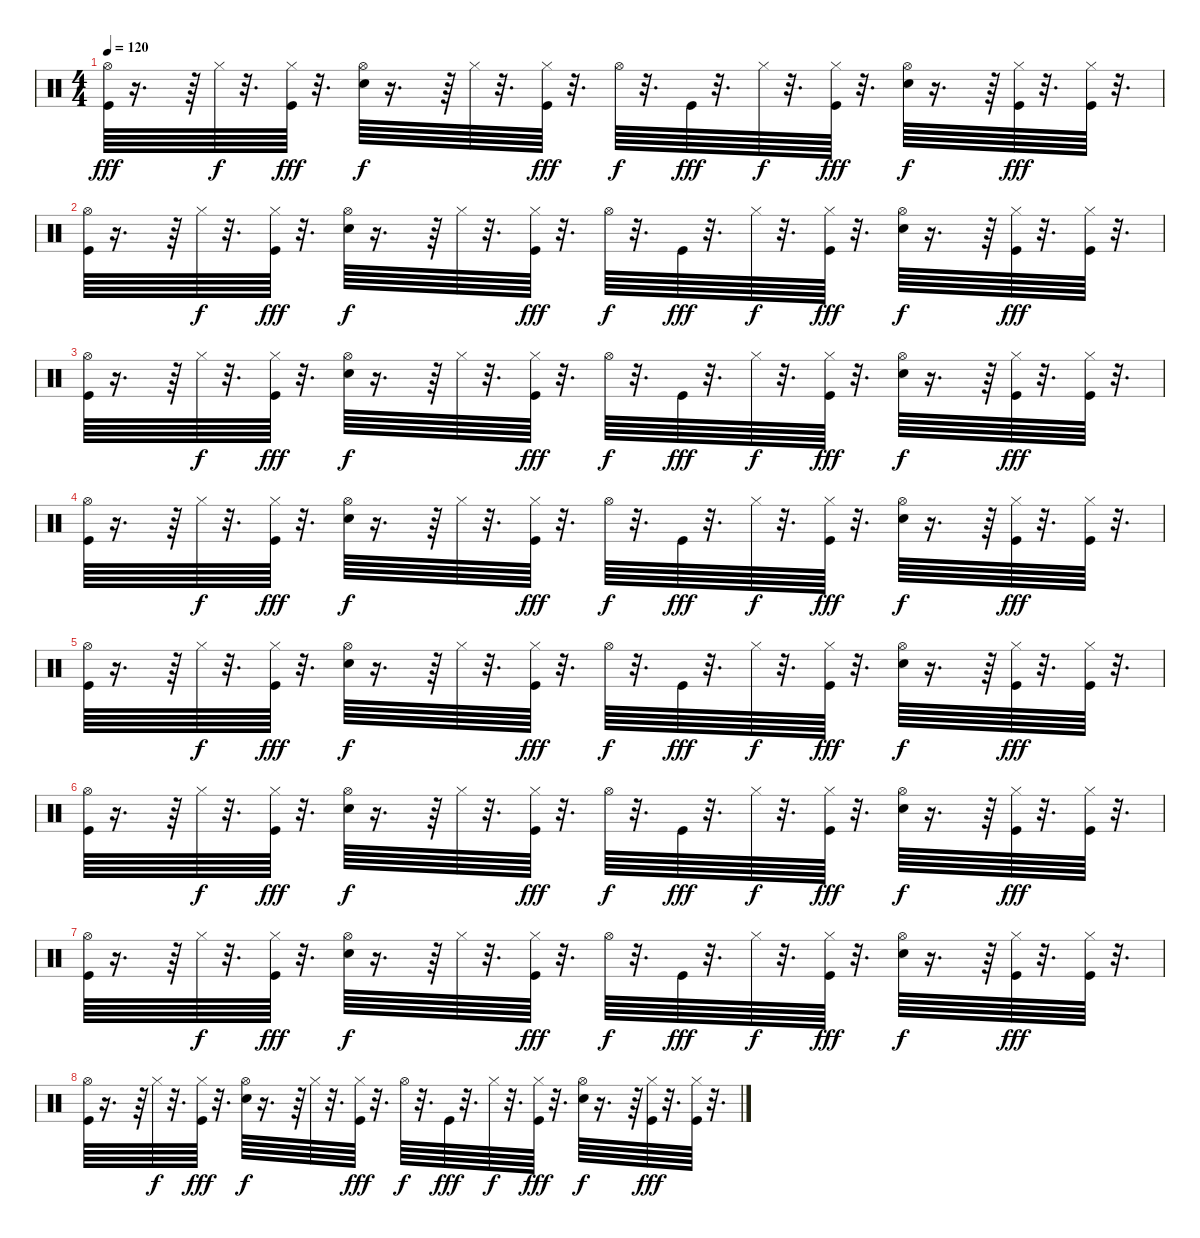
\track "" {instrument percussion}
\staff {score}
\articulation defaults
\ts (4 4)
\tempo 120
\clef neutral
\ks c
("Kick (hit)" "Hi-Hat (open)").64{dy fff} r.16{d} r.64 "Hi-Hat (closed)".64{dy f} r.32{d} ("Kick (hit)" "Hi-Hat (closed)").64{dy fff} r.32{d} ("Snare (hit) 2" "Hi-Hat (open)").64{dy f} r.16{d} r.64 "Hi-Hat (closed)".64 r.32{d} ("Kick (hit)" "Hi-Hat (closed)").64{dy fff} r.32{d} "Hi-Hat (open)".64{dy f} r.32{d} "Kick (hit)".64{dy fff} r.32{d} "Hi-Hat (closed)".64{dy f} r.32{d} ("Kick (hit)" "Hi-Hat (closed)").64{dy fff} r.32{d} ("Snare (hit) 2" "Hi-Hat (open)").64{dy f} r.16{d} r.64 ("Kick (hit)" "Hi-Hat (closed)").64{dy fff} r.32{d} ("Kick (hit)" "Hi-Hat (closed)").64 r.32{d} |
("Kick (hit)" "Hi-Hat (open)").64 r.16{d} r.64 "Hi-Hat (closed)".64{dy f} r.32{d} ("Kick (hit)" "Hi-Hat (closed)").64{dy fff} r.32{d} ("Snare (hit) 2" "Hi-Hat (open)").64{dy f} r.16{d} r.64 "Hi-Hat (closed)".64 r.32{d} ("Kick (hit)" "Hi-Hat (closed)").64{dy fff} r.32{d} "Hi-Hat (open)".64{dy f} r.32{d} "Kick (hit)".64{dy fff} r.32{d} "Hi-Hat (closed)".64{dy f} r.32{d} ("Kick (hit)" "Hi-Hat (closed)").64{dy fff} r.32{d} ("Snare (hit) 2" "Hi-Hat (open)").64{dy f} r.16{d} r.64 ("Kick (hit)" "Hi-Hat (closed)").64{dy fff} r.32{d} ("Kick (hit)" "Hi-Hat (closed)").64 r.32{d} |
("Kick (hit)" "Hi-Hat (open)").64 r.16{d} r.64 "Hi-Hat (closed)".64{dy f} r.32{d} ("Kick (hit)" "Hi-Hat (closed)").64{dy fff} r.32{d} ("Snare (hit) 2" "Hi-Hat (open)").64{dy f} r.16{d} r.64 "Hi-Hat (closed)".64 r.32{d} ("Kick (hit)" "Hi-Hat (closed)").64{dy fff} r.32{d} "Hi-Hat (open)".64{dy f} r.32{d} "Kick (hit)".64{dy fff} r.32{d} "Hi-Hat (closed)".64{dy f} r.32{d} ("Kick (hit)" "Hi-Hat (closed)").64{dy fff} r.32{d} ("Snare (hit) 2" "Hi-Hat (open)").64{dy f} r.16{d} r.64 ("Kick (hit)" "Hi-Hat (closed)").64{dy fff} r.32{d} ("Kick (hit)" "Hi-Hat (closed)").64 r.32{d} |
("Kick (hit)" "Hi-Hat (open)").64 r.16{d} r.64 "Hi-Hat (closed)".64{dy f} r.32{d} ("Kick (hit)" "Hi-Hat (closed)").64{dy fff} r.32{d} ("Snare (hit) 2" "Hi-Hat (open)").64{dy f} r.16{d} r.64 "Hi-Hat (closed)".64 r.32{d} ("Kick (hit)" "Hi-Hat (closed)").64{dy fff} r.32{d} "Hi-Hat (open)".64{dy f} r.32{d} "Kick (hit)".64{dy fff} r.32{d} "Hi-Hat (closed)".64{dy f} r.32{d} ("Kick (hit)" "Hi-Hat (closed)").64{dy fff} r.32{d} ("Snare (hit) 2" "Hi-Hat (open)").64{dy f} r.16{d} r.64 ("Kick (hit)" "Hi-Hat (closed)").64{dy fff} r.32{d} ("Kick (hit)" "Hi-Hat (closed)").64 r.32{d} |
("Kick (hit)" "Hi-Hat (open)").64 r.16{d} r.64 "Hi-Hat (closed)".64{dy f} r.32{d} ("Kick (hit)" "Hi-Hat (closed)").64{dy fff} r.32{d} ("Snare (hit) 2" "Hi-Hat (open)").64{dy f} r.16{d} r.64 "Hi-Hat (closed)".64 r.32{d} ("Kick (hit)" "Hi-Hat (closed)").64{dy fff} r.32{d} "Hi-Hat (open)".64{dy f} r.32{d} "Kick (hit)".64{dy fff} r.32{d} "Hi-Hat (closed)".64{dy f} r.32{d} ("Kick (hit)" "Hi-Hat (closed)").64{dy fff} r.32{d} ("Snare (hit) 2" "Hi-Hat (open)").64{dy f} r.16{d} r.64 ("Kick (hit)" "Hi-Hat (closed)").64{dy fff} r.32{d} ("Kick (hit)" "Hi-Hat (closed)").64 r.32{d} |
("Kick (hit)" "Hi-Hat (open)").64 r.16{d} r.64 "Hi-Hat (closed)".64{dy f} r.32{d} ("Kick (hit)" "Hi-Hat (closed)").64{dy fff} r.32{d} ("Snare (hit) 2" "Hi-Hat (open)").64{dy f} r.16{d} r.64 "Hi-Hat (closed)".64 r.32{d} ("Kick (hit)" "Hi-Hat (closed)").64{dy fff} r.32{d} "Hi-Hat (open)".64{dy f} r.32{d} "Kick (hit)".64{dy fff} r.32{d} "Hi-Hat (closed)".64{dy f} r.32{d} ("Kick (hit)" "Hi-Hat (closed)").64{dy fff} r.32{d} ("Snare (hit) 2" "Hi-Hat (open)").64{dy f} r.16{d} r.64 ("Kick (hit)" "Hi-Hat (closed)").64{dy fff} r.32{d} ("Kick (hit)" "Hi-Hat (closed)").64 r.32{d} |
("Kick (hit)" "Hi-Hat (open)").64 r.16{d} r.64 "Hi-Hat (closed)".64{dy f} r.32{d} ("Kick (hit)" "Hi-Hat (closed)").64{dy fff} r.32{d} ("Snare (hit) 2" "Hi-Hat (open)").64{dy f} r.16{d} r.64 "Hi-Hat (closed)".64 r.32{d} ("Kick (hit)" "Hi-Hat (closed)").64{dy fff} r.32{d} "Hi-Hat (open)".64{dy f} r.32{d} "Kick (hit)".64{dy fff} r.32{d} "Hi-Hat (closed)".64{dy f} r.32{d} ("Kick (hit)" "Hi-Hat (closed)").64{dy fff} r.32{d} ("Snare (hit) 2" "Hi-Hat (open)").64{dy f} r.16{d} r.64 ("Kick (hit)" "Hi-Hat (closed)").64{dy fff} r.32{d} ("Kick (hit)" "Hi-Hat (closed)").64 r.32{d} |
("Kick (hit)" "Hi-Hat (open)").64 r.16{d} r.64 "Hi-Hat (closed)".64{dy f} r.32{d} ("Kick (hit)" "Hi-Hat (closed)").64{dy fff} r.32{d} ("Snare (hit) 2" "Hi-Hat (open)").64{dy f} r.16{d} r.64 "Hi-Hat (closed)".64 r.32{d} ("Kick (hit)" "Hi-Hat (closed)").64{dy fff} r.32{d} "Hi-Hat (open)".64{dy f} r.32{d} "Kick (hit)".64{dy fff} r.32{d} "Hi-Hat (closed)".64{dy f} r.32{d} ("Kick (hit)" "Hi-Hat (closed)").64{dy fff} r.32{d} ("Snare (hit) 2" "Hi-Hat (open)").64{dy f} r.16{d} r.64 ("Kick (hit)" "Hi-Hat (closed)").64{dy fff} r.32{d} ("Kick (hit)" "Hi-Hat (closed)").64 r.32{d}
